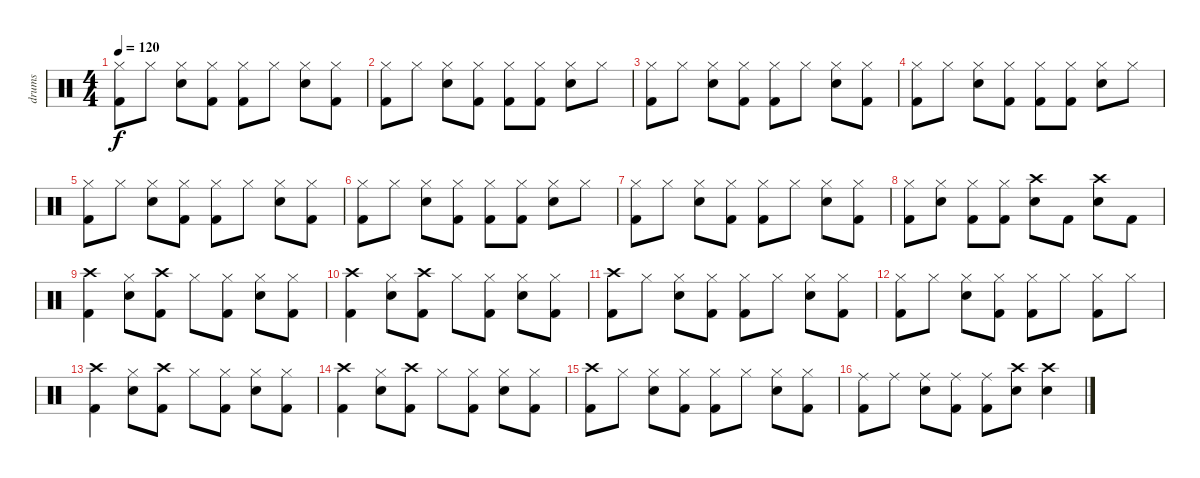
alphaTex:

\track ("drums" "drums") {instrument percussion}
\staff {score}
\articulation defaults
\ts (4 4)
\tempo 120
\clef neutral
\ks c
("Hi-Hat (closed)" "Kick (hit) 2").8{dy f} "Hi-Hat (closed)".8 ("Hi-Hat (closed)" "Snare (hit) 2").8 ("Hi-Hat (closed)" "Kick (hit) 2").8 ("Hi-Hat (closed)" "Kick (hit) 2").8 "Hi-Hat (closed)".8 ("Hi-Hat (closed)" "Snare (hit) 2").8 ("Hi-Hat (closed)" "Kick (hit) 2").8 |
("Hi-Hat (closed)" "Kick (hit) 2").8 "Hi-Hat (closed)".8 ("Hi-Hat (closed)" "Snare (hit) 2").8 ("Hi-Hat (closed)" "Kick (hit) 2").8 ("Hi-Hat (closed)" "Kick (hit) 2").8 ("Hi-Hat (closed)" "Kick (hit) 2").8 ("Hi-Hat (closed)" "Snare (hit) 2").8 "Hi-Hat (closed)".8 |
("Hi-Hat (closed)" "Kick (hit) 2").8 "Hi-Hat (closed)".8 ("Hi-Hat (closed)" "Snare (hit) 2").8 ("Hi-Hat (closed)" "Kick (hit) 2").8 ("Hi-Hat (closed)" "Kick (hit) 2").8 "Hi-Hat (closed)".8 ("Hi-Hat (closed)" "Snare (hit) 2").8 ("Hi-Hat (closed)" "Kick (hit) 2").8 |
("Hi-Hat (closed)" "Kick (hit) 2").8 "Hi-Hat (closed)".8 ("Hi-Hat (closed)" "Snare (hit) 2").8 ("Hi-Hat (closed)" "Kick (hit) 2").8 ("Hi-Hat (closed)" "Kick (hit) 2").8 ("Hi-Hat (closed)" "Kick (hit) 2").8 ("Hi-Hat (closed)" "Snare (hit) 2").8 "Hi-Hat (closed)".8 |
("Hi-Hat (closed)" "Kick (hit) 2").8 "Hi-Hat (closed)".8 ("Hi-Hat (closed)" "Snare (hit) 2").8 ("Hi-Hat (closed)" "Kick (hit) 2").8 ("Hi-Hat (closed)" "Kick (hit) 2").8 "Hi-Hat (closed)".8 ("Hi-Hat (closed)" "Snare (hit) 2").8 ("Hi-Hat (closed)" "Kick (hit) 2").8 |
("Hi-Hat (closed)" "Kick (hit) 2").8 "Hi-Hat (closed)".8 ("Hi-Hat (closed)" "Snare (hit) 2").8 ("Hi-Hat (closed)" "Kick (hit) 2").8 ("Hi-Hat (closed)" "Kick (hit) 2").8 ("Hi-Hat (closed)" "Kick (hit) 2").8 ("Hi-Hat (closed)" "Snare (hit) 2").8 "Hi-Hat (closed)".8 |
("Hi-Hat (closed)" "Kick (hit) 2").8 "Hi-Hat (closed)".8 ("Hi-Hat (closed)" "Snare (hit) 2").8 ("Hi-Hat (closed)" "Kick (hit) 2").8 ("Hi-Hat (closed)" "Kick (hit) 2").8 "Hi-Hat (closed)".8 ("Hi-Hat (closed)" "Snare (hit) 2").8 ("Hi-Hat (closed)" "Kick (hit) 2").8 |
("Hi-Hat (closed)" "Kick (hit) 2").8 ("Hi-Hat (closed)" "Snare (hit) 2").8 ("Hi-Hat (closed)" "Kick (hit) 2").8 ("Hi-Hat (closed)" "Kick (hit) 2").8 ("Crash high (hit)" "Snare (hit) 2").8 "Kick (hit) 2".8 ("Crash high (hit)" "Snare (hit) 2").8 "Kick (hit) 2".8 |
("Crash high (hit)" "Kick (hit) 2").4 ("Hi-Hat (closed)" "Snare (hit) 2").8 ("Kick (hit) 2" "Crash high (hit)").8 "Hi-Hat (closed)".8 ("Kick (hit) 2" "Hi-Hat (closed)").8 ("Hi-Hat (closed)" "Snare (hit) 2").8 ("Hi-Hat (closed)" "Kick (hit) 2").8 |
("Crash high (hit)" "Kick (hit) 2").4 ("Hi-Hat (closed)" "Snare (hit) 2").8 ("Kick (hit) 2" "Crash high (hit)").8 "Hi-Hat (closed)".8 ("Kick (hit) 2" "Hi-Hat (closed)").8 ("Hi-Hat (closed)" "Snare (hit) 2").8 ("Hi-Hat (closed)" "Kick (hit) 2").8 |
("Crash high (hit)" "Kick (hit) 2").8 "Hi-Hat (closed)".8 ("Hi-Hat (closed)" "Snare (hit) 2").8 ("Hi-Hat (closed)" "Kick (hit) 2").8 ("Hi-Hat (closed)" "Kick (hit) 2").8 "Hi-Hat (closed)".8 ("Hi-Hat (closed)" "Snare (hit) 2").8 ("Hi-Hat (closed)" "Kick (hit) 2").8 |
("Hi-Hat (closed)" "Kick (hit) 2").8 "Hi-Hat (closed)".8 ("Hi-Hat (closed)" "Snare (hit) 2").8 ("Hi-Hat (closed)" "Kick (hit) 2").8 ("Hi-Hat (closed)" "Kick (hit) 2").8 "Hi-Hat (closed)".8 ("Hi-Hat (closed)" "Kick (hit) 2").8 "Hi-Hat (closed)".8 |
("Crash high (hit)" "Kick (hit) 2").4 ("Hi-Hat (closed)" "Snare (hit) 2").8 ("Kick (hit) 2" "Crash high (hit)").8 "Hi-Hat (closed)".8 ("Kick (hit) 2" "Hi-Hat (closed)").8 ("Hi-Hat (closed)" "Snare (hit) 2").8 ("Hi-Hat (closed)" "Kick (hit) 2").8 |
("Crash high (hit)" "Kick (hit) 2").4 ("Hi-Hat (closed)" "Snare (hit) 2").8 ("Kick (hit) 2" "Crash high (hit)").8 "Hi-Hat (closed)".8 ("Kick (hit) 2" "Hi-Hat (closed)").8 ("Hi-Hat (closed)" "Snare (hit) 2").8 ("Hi-Hat (closed)" "Kick (hit) 2").8 |
("Crash high (hit)" "Kick (hit) 2").8 "Hi-Hat (closed)".8 ("Hi-Hat (closed)" "Snare (hit) 2").8 ("Hi-Hat (closed)" "Kick (hit) 2").8 ("Hi-Hat (closed)" "Kick (hit) 2").8 "Hi-Hat (closed)".8 ("Hi-Hat (closed)" "Snare (hit) 2").8 ("Hi-Hat (closed)" "Kick (hit) 2").8 |
("Ride (middle)" "Kick (hit) 2").8 "Ride (middle)".8 ("Ride (middle)" "Snare (hit) 2").8 ("Ride (middle)" "Kick (hit) 2").8 ("Ride (middle)" "Kick (hit) 2").8 ("Snare (hit) 2" "Crash high (hit)").8 ("Snare (hit) 2" "Crash high (hit)").4
